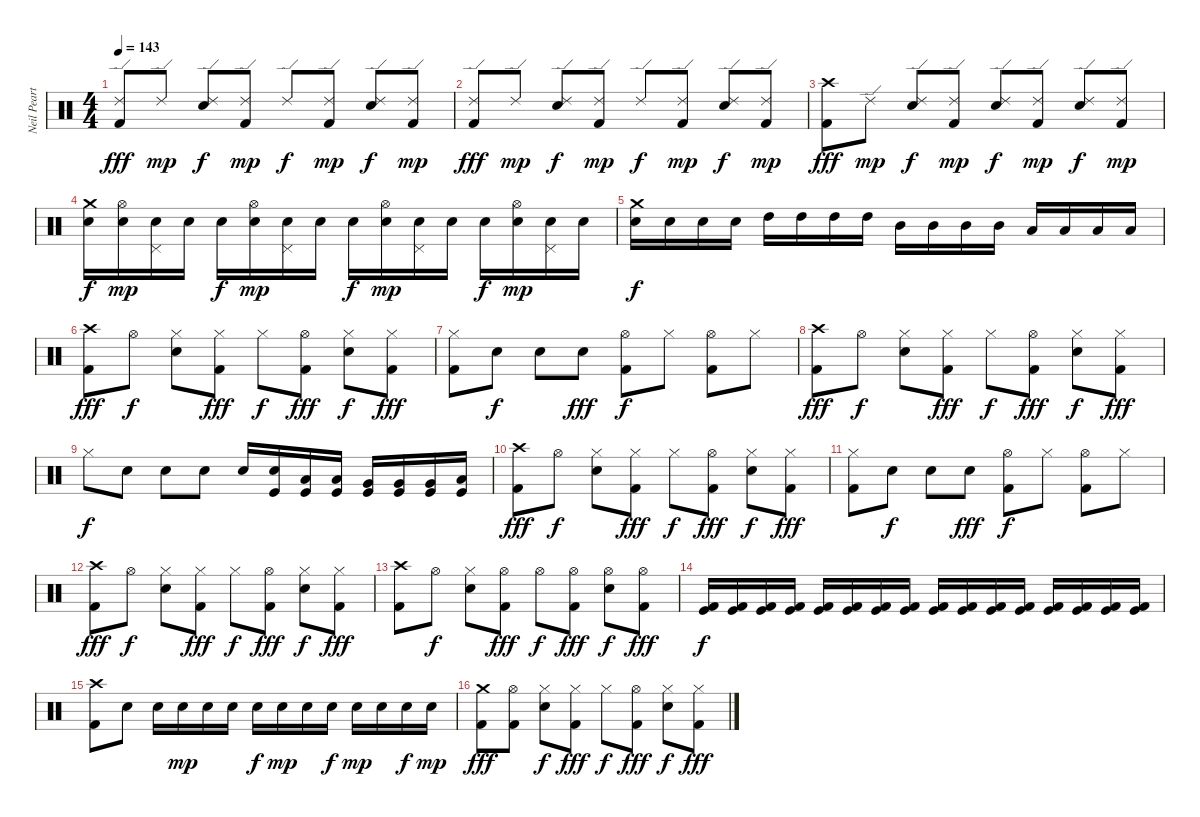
\track ("Neil Peart" "Neil Peart") {instrument percussion}
\staff {score}
\articulation defaults
\ts (4 4)
\tempo 143
\clef neutral
\ks c
("Kick (hit) 2" "Ride (edge) 2").8{dy fff} "Ride (edge) 2".8{dy mp} ("Electric Snare (hit)" "Ride (edge) 2").8{dy f} ("Kick (hit) 2" "Ride (edge) 2").8{dy mp} "Ride (edge) 2".8{dy f} ("Kick (hit) 2" "Ride (edge) 2").8{dy mp} ("Electric Snare (hit)" "Ride (edge) 2").8{dy f} ("Kick (hit) 2" "Ride (edge) 2").8{dy mp} |
("Kick (hit) 2" "Ride (edge) 2").8{dy fff} "Ride (edge) 2".8{dy mp} ("Electric Snare (hit)" "Ride (edge) 2").8{dy f} ("Kick (hit) 2" "Ride (edge) 2").8{dy mp} "Ride (edge) 2".8{dy f} ("Kick (hit) 2" "Ride (edge) 2").8{dy mp} ("Electric Snare (hit)" "Ride (edge) 2").8{dy f} ("Kick (hit) 2" "Ride (edge) 2").8{dy mp} |
("Kick (hit) 2" "Crash high (hit)").8{dy fff} "Ride (edge) 2".8{dy mp} ("Electric Snare (hit)" "Ride (edge) 2").8{dy f} ("Kick (hit) 2" "Ride (edge) 2").8{dy mp} ("Electric Snare (hit)" "Ride (edge) 2").8{dy f} ("Kick (hit) 2" "Ride (edge) 2").8{dy mp} ("Electric Snare (hit)" "Ride (edge) 2").8{dy f} ("Kick (hit) 2" "Ride (edge) 2").8{dy mp} |
("Electric Snare (hit)" "Crash medium (hit)").16{dy f} ("Electric Snare (hit)" "Hi-Hat (open)").16{dy mp} ("Electric Snare (hit)" "Pedal Hi-Hat (hit)").16 "Electric Snare (hit)".16 "Electric Snare (hit)".16{dy f} ("Electric Snare (hit)" "Hi-Hat (open)").16{dy mp} ("Electric Snare (hit)" "Pedal Hi-Hat (hit)").16 "Electric Snare (hit)".16 "Electric Snare (hit)".16{dy f} ("Electric Snare (hit)" "Hi-Hat (open)").16{dy mp} ("Electric Snare (hit)" "Pedal Hi-Hat (hit)").16 "Electric Snare (hit)".16 "Electric Snare (hit)".16{dy f} ("Electric Snare (hit)" "Hi-Hat (open)").16{dy mp} ("Electric Snare (hit)" "Pedal Hi-Hat (hit)").16 "Electric Snare (hit)".16 |
("Electric Snare (hit)" "Crash medium (hit)").16{dy f} "Electric Snare (hit)".16 "Electric Snare (hit)".16 "Electric Snare (hit)".16 "High Tom (hit)".16 "High Tom (hit)".16 "High Tom (hit)".16 "High Tom (hit)".16 "Mid Tom (hit)".16 "Mid Tom (hit)".16 "Mid Tom (hit)".16 "Mid Tom (hit)".16 "Low Tom (hit)".16 "Low Tom (hit)".16 "Low Tom (hit)".16 "Low Tom (hit)".16 |
("Kick (hit) 2" "Crash high (hit)").8{dy fff} "Hi-Hat (open)".8{dy f} ("Electric Snare (hit)" "Hi-Hat (closed)").8 ("Kick (hit) 2" "Hi-Hat (closed)").8{dy fff} "Hi-Hat (closed)".8{dy f} ("Kick (hit) 2" "Hi-Hat (open)").8{dy fff} ("Electric Snare (hit)" "Hi-Hat (closed)").8{dy f} ("Kick (hit) 2" "Hi-Hat (closed)").8{dy fff} |
("Kick (hit) 2" "Hi-Hat (closed)").8 "Electric Snare (hit)".8{dy f} "Electric Snare (hit)".8 "Electric Snare (hit)".8{dy fff} ("Kick (hit) 2" "Hi-Hat (open)").8{dy f} "Hi-Hat (closed)".8 ("Kick (hit) 2" "Hi-Hat (open)").8 "Hi-Hat (closed)".8 |
("Kick (hit) 2" "Crash high (hit)").8{dy fff} "Hi-Hat (open)".8{dy f} ("Electric Snare (hit)" "Hi-Hat (closed)").8 ("Kick (hit) 2" "Hi-Hat (closed)").8{dy fff} "Hi-Hat (closed)".8{dy f} ("Kick (hit) 2" "Hi-Hat (open)").8{dy fff} ("Electric Snare (hit)" "Hi-Hat (closed)").8{dy f} ("Kick (hit) 2" "Hi-Hat (closed)").8{dy fff} |
"Hi-Hat (closed)".8{dy f} "Electric Snare (hit)".8 "Electric Snare (hit)".8 "Electric Snare (hit)".8 "Electric Snare (hit)".16 ("Electric Snare (hit)" "Kick (hit)").16 ("Low Tom (hit)" "Kick (hit)").16 ("Low Tom (hit)" "Kick (hit)").16 ("Very Low Tom (hit)" "Kick (hit)").16 ("Very Low Tom (hit)" "Kick (hit)").16 ("Very Low Tom (hit)" "Kick (hit)").16 ("Low Floor Tom (hit)" "Kick (hit)").16 |
("Kick (hit) 2" "Crash high (hit)").8{dy fff} "Hi-Hat (open)".8{dy f} ("Electric Snare (hit)" "Hi-Hat (closed)").8 ("Kick (hit) 2" "Hi-Hat (closed)").8{dy fff} "Hi-Hat (closed)".8{dy f} ("Kick (hit) 2" "Hi-Hat (open)").8{dy fff} ("Electric Snare (hit)" "Hi-Hat (closed)").8{dy f} ("Kick (hit) 2" "Hi-Hat (closed)").8{dy fff} |
("Kick (hit) 2" "Hi-Hat (closed)").8 "Electric Snare (hit)".8{dy f} "Electric Snare (hit)".8 "Electric Snare (hit)".8{dy fff} ("Kick (hit) 2" "Hi-Hat (open)").8{dy f} "Hi-Hat (closed)".8 ("Kick (hit) 2" "Hi-Hat (open)").8 "Hi-Hat (closed)".8 |
("Kick (hit) 2" "Crash high (hit)").8{dy fff} "Hi-Hat (open)".8{dy f} ("Electric Snare (hit)" "Hi-Hat (closed)").8 ("Kick (hit) 2" "Hi-Hat (closed)").8{dy fff} "Hi-Hat (closed)".8{dy f} ("Kick (hit) 2" "Hi-Hat (open)").8{dy fff} ("Electric Snare (hit)" "Hi-Hat (closed)").8{dy f} ("Kick (hit) 2" "Hi-Hat (closed)").8{dy fff} |
("Kick (hit) 2" "Crash high (hit)").8 "Hi-Hat (open)".8{dy f} ("Electric Snare (hit)" "Hi-Hat (closed)").8 ("Kick (hit) 2" "Hi-Hat (open)").8{dy fff} "Hi-Hat (open)".8{dy f} ("Kick (hit) 2" "Hi-Hat (open)").8{dy fff} ("Electric Snare (hit)" "Hi-Hat (open)").8{dy f} ("Kick (hit) 2" "Hi-Hat (open)").8{dy fff} |
("Kick (hit)" "Kick (hit) 2").16{dy f} ("Kick (hit)" "Kick (hit) 2").16 ("Kick (hit)" "Kick (hit) 2").16 ("Kick (hit)" "Kick (hit) 2").16 ("Kick (hit)" "Kick (hit) 2").16 ("Kick (hit)" "Kick (hit) 2").16 ("Kick (hit)" "Kick (hit) 2").16 ("Kick (hit)" "Kick (hit) 2").16 ("Kick (hit)" "Kick (hit) 2").16 ("Kick (hit)" "Kick (hit) 2").16 ("Kick (hit)" "Kick (hit) 2").16 ("Kick (hit)" "Kick (hit) 2").16 ("Kick (hit)" "Kick (hit) 2").16 ("Kick (hit)" "Kick (hit) 2").16 ("Kick (hit)" "Kick (hit) 2").16 ("Kick (hit)" "Kick (hit) 2").16 |
("Crash high (hit)" "Kick (hit) 2").8 "Electric Snare (hit)".8 "Electric Snare (hit)".16 "Electric Snare (hit)".16{dy mp} "Electric Snare (hit)".16 "Electric Snare (hit)".16 "Electric Snare (hit)".16{dy f} "Electric Snare (hit)".16{dy mp} "Electric Snare (hit)".16 "Electric Snare (hit)".16{dy f} "Electric Snare (hit)".16{dy mp} "Electric Snare (hit)".16 "Electric Snare (hit)".16{dy f} "Electric Snare (hit)".16{dy mp} |
("Kick (hit) 2" "Crash medium (hit)").8{dy fff} ("Kick (hit) 2" "Hi-Hat (open)").8 ("Electric Snare (hit)" "Hi-Hat (closed)").8{dy f} ("Kick (hit) 2" "Hi-Hat (closed)").8{dy fff} "Hi-Hat (closed)".8{dy f} ("Kick (hit) 2" "Hi-Hat (open)").8{dy fff} ("Electric Snare (hit)" "Hi-Hat (closed)").8{dy f} ("Kick (hit) 2" "Hi-Hat (closed)").8{dy fff}
